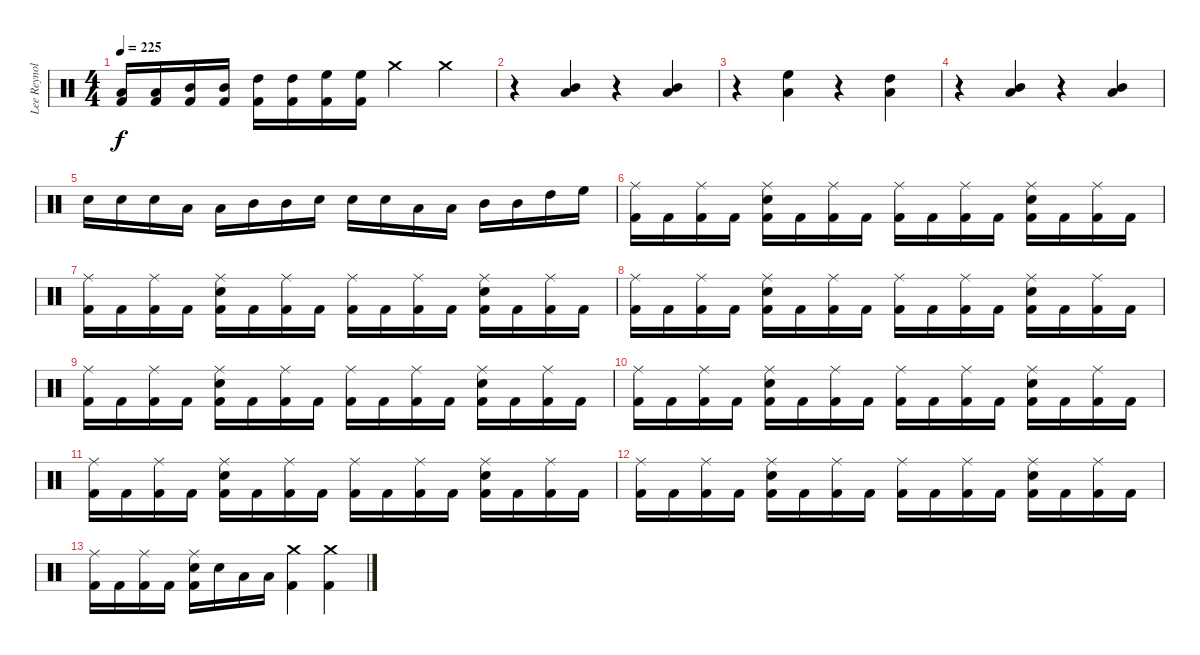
\track ("Lee Reynolds" "Lee Reynol") {instrument percussion}
\staff {score}
\articulation defaults
\ts (4 4)
\tempo 225
\clef neutral
\ks c
("Low Tom (hit)" "Kick (hit) 2").16{dy f} ("Low Tom (hit)" "Kick (hit) 2").16 ("Mid Tom (hit)" "Kick (hit) 2").16 ("Mid Tom (hit)" "Kick (hit) 2").16 ("High Tom (hit)" "Kick (hit) 2").16 ("High Tom (hit)" "Kick (hit) 2").16 ("High Floor Tom (hit)" "Kick (hit) 2").16 ("High Floor Tom (hit)" "Kick (hit) 2").16 "Crash medium (hit)".4 "Crash medium (hit)".4 |
r.4 ("Mid Tom (hit)" "Low Tom (hit)").4 r.4 ("Low Tom (hit)" "Mid Tom (hit)").4 |
r.4 ("High Floor Tom (hit)" "Low Tom (hit)").4 r.4 ("High Tom (hit)" "Low Tom (hit)").4 |
r.4 ("Mid Tom (hit)" "Low Tom (hit)").4 r.4 ("Low Tom (hit)" "Mid Tom (hit)").4 |
"Snare (hit) 2".16 "Snare (hit) 2".16 "Snare (hit) 2".16 "Low Tom (hit)".16 "Low Tom (hit)".16 "Mid Tom (hit)".16 "Mid Tom (hit)".16 "Snare (hit) 2".16 "Snare (hit) 2".16 "Snare (hit) 2".16 "Low Tom (hit)".16 "Low Tom (hit)".16 "Mid Tom (hit)".16 "Mid Tom (hit)".16 "High Tom (hit)".16 "High Floor Tom (hit)".16 |
("Ride (middle)" "Kick (hit) 2").16 "Kick (hit) 2".16 ("Ride (middle)" "Kick (hit) 2").16 "Kick (hit) 2".16 ("Ride (middle)" "Snare (hit) 2" "Kick (hit) 2").16 "Kick (hit) 2".16 ("Ride (middle)" "Kick (hit) 2").16 "Kick (hit) 2".16 ("Ride (middle)" "Kick (hit) 2").16 "Kick (hit) 2".16 ("Ride (middle)" "Kick (hit) 2").16 "Kick (hit) 2".16 ("Ride (middle)" "Snare (hit) 2" "Kick (hit) 2").16 "Kick (hit) 2".16 ("Ride (middle)" "Kick (hit) 2").16 "Kick (hit) 2".16 |
("Ride (middle)" "Kick (hit) 2").16 "Kick (hit) 2".16 ("Ride (middle)" "Kick (hit) 2").16 "Kick (hit) 2".16 ("Ride (middle)" "Snare (hit) 2" "Kick (hit) 2").16 "Kick (hit) 2".16 ("Ride (middle)" "Kick (hit) 2").16 "Kick (hit) 2".16 ("Ride (middle)" "Kick (hit) 2").16 "Kick (hit) 2".16 ("Ride (middle)" "Kick (hit) 2").16 "Kick (hit) 2".16 ("Ride (middle)" "Snare (hit) 2" "Kick (hit) 2").16 "Kick (hit) 2".16 ("Ride (middle)" "Kick (hit) 2").16 "Kick (hit) 2".16 |
("Ride (middle)" "Kick (hit) 2").16 "Kick (hit) 2".16 ("Ride (middle)" "Kick (hit) 2").16 "Kick (hit) 2".16 ("Ride (middle)" "Snare (hit) 2" "Kick (hit) 2").16 "Kick (hit) 2".16 ("Ride (middle)" "Kick (hit) 2").16 "Kick (hit) 2".16 ("Ride (middle)" "Kick (hit) 2").16 "Kick (hit) 2".16 ("Ride (middle)" "Kick (hit) 2").16 "Kick (hit) 2".16 ("Ride (middle)" "Snare (hit) 2" "Kick (hit) 2").16 "Kick (hit) 2".16 ("Ride (middle)" "Kick (hit) 2").16 "Kick (hit) 2".16 |
("Ride (middle)" "Kick (hit) 2").16 "Kick (hit) 2".16 ("Ride (middle)" "Kick (hit) 2").16 "Kick (hit) 2".16 ("Ride (middle)" "Snare (hit) 2" "Kick (hit) 2").16 "Kick (hit) 2".16 ("Ride (middle)" "Kick (hit) 2").16 "Kick (hit) 2".16 ("Ride (middle)" "Kick (hit) 2").16 "Kick (hit) 2".16 ("Ride (middle)" "Kick (hit) 2").16 "Kick (hit) 2".16 ("Ride (middle)" "Snare (hit) 2" "Kick (hit) 2").16 "Kick (hit) 2".16 ("Ride (middle)" "Kick (hit) 2").16 "Kick (hit) 2".16 |
("Ride (middle)" "Kick (hit) 2").16 "Kick (hit) 2".16 ("Ride (middle)" "Kick (hit) 2").16 "Kick (hit) 2".16 ("Ride (middle)" "Snare (hit) 2" "Kick (hit) 2").16 "Kick (hit) 2".16 ("Ride (middle)" "Kick (hit) 2").16 "Kick (hit) 2".16 ("Ride (middle)" "Kick (hit) 2").16 "Kick (hit) 2".16 ("Ride (middle)" "Kick (hit) 2").16 "Kick (hit) 2".16 ("Ride (middle)" "Snare (hit) 2" "Kick (hit) 2").16 "Kick (hit) 2".16 ("Ride (middle)" "Kick (hit) 2").16 "Kick (hit) 2".16 |
("Ride (middle)" "Kick (hit) 2").16 "Kick (hit) 2".16 ("Ride (middle)" "Kick (hit) 2").16 "Kick (hit) 2".16 ("Ride (middle)" "Snare (hit) 2" "Kick (hit) 2").16 "Kick (hit) 2".16 ("Ride (middle)" "Kick (hit) 2").16 "Kick (hit) 2".16 ("Ride (middle)" "Kick (hit) 2").16 "Kick (hit) 2".16 ("Ride (middle)" "Kick (hit) 2").16 "Kick (hit) 2".16 ("Ride (middle)" "Snare (hit) 2" "Kick (hit) 2").16 "Kick (hit) 2".16 ("Ride (middle)" "Kick (hit) 2").16 "Kick (hit) 2".16 |
("Ride (middle)" "Kick (hit) 2").16 "Kick (hit) 2".16 ("Ride (middle)" "Kick (hit) 2").16 "Kick (hit) 2".16 ("Ride (middle)" "Snare (hit) 2" "Kick (hit) 2").16 "Kick (hit) 2".16 ("Ride (middle)" "Kick (hit) 2").16 "Kick (hit) 2".16 ("Ride (middle)" "Kick (hit) 2").16 "Kick (hit) 2".16 ("Ride (middle)" "Kick (hit) 2").16 "Kick (hit) 2".16 ("Ride (middle)" "Snare (hit) 2" "Kick (hit) 2").16 "Kick (hit) 2".16 ("Ride (middle)" "Kick (hit) 2").16 "Kick (hit) 2".16 |
("Ride (middle)" "Kick (hit) 2").16 "Kick (hit) 2".16 ("Ride (middle)" "Kick (hit) 2").16 "Kick (hit) 2".16 ("Ride (middle)" "Snare (hit) 2" "Kick (hit) 2").16 "Snare (hit) 2".16 "Low Tom (hit)".16 "Low Tom (hit)".16 ("Crash medium (hit)" "Kick (hit) 2").4 ("Crash medium (hit)" "Kick (hit) 2").4
